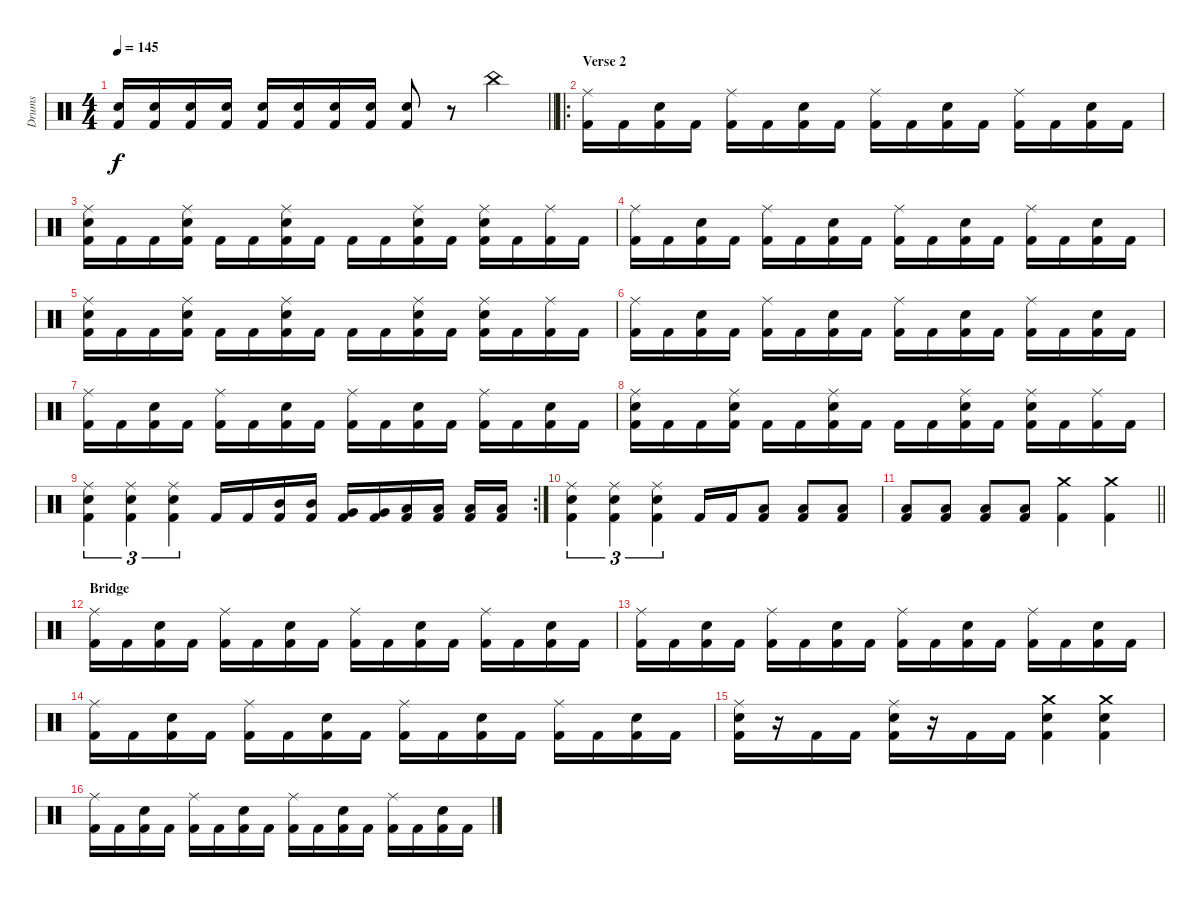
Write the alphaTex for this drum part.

\track ("Drums" "Drums") {instrument percussion}
\staff {score}
\articulation defaults
\ts (4 4)
\tempo 145
\clef neutral
\barLineRight lightlight
\ks c
("Electric Snare (hit)" "Kick (hit) 2").16{dy f} ("Electric Snare (hit)" "Kick (hit) 2").16 ("Electric Snare (hit)" "Kick (hit) 2").16 ("Electric Snare (hit)" "Kick (hit) 2").16 ("Electric Snare (hit)" "Kick (hit) 2").16 ("Electric Snare (hit)" "Kick (hit) 2").16 ("Electric Snare (hit)" "Kick (hit) 2").16 ("Electric Snare (hit)" "Kick (hit) 2").16 ("Electric Snare (hit)" "Kick (hit) 2").8 r.8 "China (hit)".4 |
\ro
\section ("" "Verse 2")
("Ride (middle)" "Kick (hit) 2").16 "Kick (hit) 2".16 ("Electric Snare (hit)" "Kick (hit) 2").16 "Kick (hit) 2".16 ("Ride (middle)" "Kick (hit) 2").16 "Kick (hit) 2".16 ("Electric Snare (hit)" "Kick (hit) 2").16 "Kick (hit) 2".16 ("Ride (middle)" "Kick (hit) 2").16 "Kick (hit) 2".16 ("Electric Snare (hit)" "Kick (hit) 2").16 "Kick (hit) 2".16 ("Ride (middle)" "Kick (hit) 2").16 "Kick (hit) 2".16 ("Electric Snare (hit)" "Kick (hit) 2").16 "Kick (hit) 2".16 |
("Ride (middle)" "Electric Snare (hit)" "Kick (hit) 2").16 "Kick (hit) 2".16 "Kick (hit) 2".16 ("Ride (middle)" "Electric Snare (hit)" "Kick (hit) 2").16 "Kick (hit) 2".16 "Kick (hit) 2".16 ("Ride (middle)" "Electric Snare (hit)" "Kick (hit) 2").16 "Kick (hit) 2".16 "Kick (hit) 2".16 "Kick (hit) 2".16 ("Ride (middle)" "Electric Snare (hit)" "Kick (hit) 2").16 "Kick (hit) 2".16 ("Ride (middle)" "Electric Snare (hit)" "Kick (hit) 2").16 "Kick (hit) 2".16 ("Ride (middle)" "Kick (hit) 2").16 "Kick (hit) 2".16 |
("Ride (middle)" "Kick (hit) 2").16 "Kick (hit) 2".16 ("Electric Snare (hit)" "Kick (hit) 2").16 "Kick (hit) 2".16 ("Ride (middle)" "Kick (hit) 2").16 "Kick (hit) 2".16 ("Electric Snare (hit)" "Kick (hit) 2").16 "Kick (hit) 2".16 ("Ride (middle)" "Kick (hit) 2").16 "Kick (hit) 2".16 ("Electric Snare (hit)" "Kick (hit) 2").16 "Kick (hit) 2".16 ("Ride (middle)" "Kick (hit) 2").16 "Kick (hit) 2".16 ("Electric Snare (hit)" "Kick (hit) 2").16 "Kick (hit) 2".16 |
("Ride (middle)" "Electric Snare (hit)" "Kick (hit) 2").16 "Kick (hit) 2".16 "Kick (hit) 2".16 ("Ride (middle)" "Electric Snare (hit)" "Kick (hit) 2").16 "Kick (hit) 2".16 "Kick (hit) 2".16 ("Ride (middle)" "Electric Snare (hit)" "Kick (hit) 2").16 "Kick (hit) 2".16 "Kick (hit) 2".16 "Kick (hit) 2".16 ("Ride (middle)" "Electric Snare (hit)" "Kick (hit) 2").16 "Kick (hit) 2".16 ("Ride (middle)" "Electric Snare (hit)" "Kick (hit) 2").16 "Kick (hit) 2".16 ("Ride (middle)" "Kick (hit) 2").16 "Kick (hit) 2".16 |
("Ride (middle)" "Kick (hit) 2").16 "Kick (hit) 2".16 ("Electric Snare (hit)" "Kick (hit) 2").16 "Kick (hit) 2".16 ("Ride (middle)" "Kick (hit) 2").16 "Kick (hit) 2".16 ("Electric Snare (hit)" "Kick (hit) 2").16 "Kick (hit) 2".16 ("Ride (middle)" "Kick (hit) 2").16 "Kick (hit) 2".16 ("Electric Snare (hit)" "Kick (hit) 2").16 "Kick (hit) 2".16 ("Ride (middle)" "Kick (hit) 2").16 "Kick (hit) 2".16 ("Electric Snare (hit)" "Kick (hit) 2").16 "Kick (hit) 2".16 |
("Ride (middle)" "Kick (hit) 2").16 "Kick (hit) 2".16 ("Electric Snare (hit)" "Kick (hit) 2").16 "Kick (hit) 2".16 ("Ride (middle)" "Kick (hit) 2").16 "Kick (hit) 2".16 ("Electric Snare (hit)" "Kick (hit) 2").16 "Kick (hit) 2".16 ("Ride (middle)" "Kick (hit) 2").16 "Kick (hit) 2".16 ("Electric Snare (hit)" "Kick (hit) 2").16 "Kick (hit) 2".16 ("Ride (middle)" "Kick (hit) 2").16 "Kick (hit) 2".16 ("Electric Snare (hit)" "Kick (hit) 2").16 "Kick (hit) 2".16 |
("Ride (middle)" "Electric Snare (hit)" "Kick (hit) 2").16 "Kick (hit) 2".16 "Kick (hit) 2".16 ("Ride (middle)" "Electric Snare (hit)" "Kick (hit) 2").16 "Kick (hit) 2".16 "Kick (hit) 2".16 ("Ride (middle)" "Electric Snare (hit)" "Kick (hit) 2").16 "Kick (hit) 2".16 "Kick (hit) 2".16 "Kick (hit) 2".16 ("Ride (middle)" "Electric Snare (hit)" "Kick (hit) 2").16 "Kick (hit) 2".16 ("Ride (middle)" "Electric Snare (hit)" "Kick (hit) 2").16 "Kick (hit) 2".16 ("Ride (middle)" "Kick (hit) 2").16 "Kick (hit) 2".16 |
\rc 2
("Ride (middle)" "Electric Snare (hit)" "Kick (hit) 2").4{tu (3 2)} ("Ride (middle)" "Electric Snare (hit)" "Kick (hit) 2").4{tu (3 2)} ("Ride (middle)" "Electric Snare (hit)" "Kick (hit) 2").4{tu (3 2)} "Kick (hit) 2".16 "Kick (hit) 2".16 ("Mid Tom (hit)" "Kick (hit) 2").16 ("Mid Tom (hit)" "Kick (hit) 2").16 ("Very Low Tom (hit)" "Kick (hit) 2").16 ("Very Low Tom (hit)" "Kick (hit) 2").16 ("Low Floor Tom (hit)" "Kick (hit) 2").16 ("Low Floor Tom (hit)" "Kick (hit) 2").16 ("Low Floor Tom (hit)" "Kick (hit) 2").16 ("Low Floor Tom (hit)" "Kick (hit) 2").16 |
("Ride (middle)" "Electric Snare (hit)" "Kick (hit) 2").4{tu (3 2)} ("Ride (middle)" "Electric Snare (hit)" "Kick (hit) 2").4{tu (3 2)} ("Ride (middle)" "Electric Snare (hit)" "Kick (hit) 2").4{tu (3 2)} "Kick (hit) 2".16 "Kick (hit) 2".16 ("Low Floor Tom (hit)" "Kick (hit) 2").8 ("Low Floor Tom (hit)" "Kick (hit) 2").8 ("Low Floor Tom (hit)" "Kick (hit) 2").8 |
\barLineRight lightlight
("Low Floor Tom (hit)" "Kick (hit) 2").8 ("Low Floor Tom (hit)" "Kick (hit) 2").8 ("Low Floor Tom (hit)" "Kick (hit) 2").8 ("Low Floor Tom (hit)" "Kick (hit) 2").8 ("Crash medium (hit)" "Kick (hit) 2").4 ("Crash medium (hit)" "Kick (hit) 2").4 |
\section ("" "Bridge")
("Ride (middle)" "Kick (hit) 2").16 "Kick (hit) 2".16 ("Electric Snare (hit)" "Kick (hit) 2").16 "Kick (hit) 2".16 ("Ride (middle)" "Kick (hit) 2").16 "Kick (hit) 2".16 ("Electric Snare (hit)" "Kick (hit) 2").16 "Kick (hit) 2".16 ("Ride (middle)" "Kick (hit) 2").16 "Kick (hit) 2".16 ("Electric Snare (hit)" "Kick (hit) 2").16 "Kick (hit) 2".16 ("Ride (middle)" "Kick (hit) 2").16 "Kick (hit) 2".16 ("Electric Snare (hit)" "Kick (hit) 2").16 "Kick (hit) 2".16 |
("Ride (middle)" "Kick (hit) 2").16 "Kick (hit) 2".16 ("Electric Snare (hit)" "Kick (hit) 2").16 "Kick (hit) 2".16 ("Ride (middle)" "Kick (hit) 2").16 "Kick (hit) 2".16 ("Electric Snare (hit)" "Kick (hit) 2").16 "Kick (hit) 2".16 ("Ride (middle)" "Kick (hit) 2").16 "Kick (hit) 2".16 ("Electric Snare (hit)" "Kick (hit) 2").16 "Kick (hit) 2".16 ("Ride (middle)" "Kick (hit) 2").16 "Kick (hit) 2".16 ("Electric Snare (hit)" "Kick (hit) 2").16 "Kick (hit) 2".16 |
("Ride (middle)" "Kick (hit) 2").16 "Kick (hit) 2".16 ("Electric Snare (hit)" "Kick (hit) 2").16 "Kick (hit) 2".16 ("Ride (middle)" "Kick (hit) 2").16 "Kick (hit) 2".16 ("Electric Snare (hit)" "Kick (hit) 2").16 "Kick (hit) 2".16 ("Ride (middle)" "Kick (hit) 2").16 "Kick (hit) 2".16 ("Electric Snare (hit)" "Kick (hit) 2").16 "Kick (hit) 2".16 ("Ride (middle)" "Kick (hit) 2").16 "Kick (hit) 2".16 ("Electric Snare (hit)" "Kick (hit) 2").16 "Kick (hit) 2".16 |
("Ride (middle)" "Electric Snare (hit)" "Kick (hit) 2").16 r.16 "Kick (hit) 2".16 "Kick (hit) 2".16 ("Ride (middle)" "Electric Snare (hit)" "Kick (hit) 2").16 r.16 "Kick (hit) 2".16 "Kick (hit) 2".16 ("Crash medium (hit)" "Electric Snare (hit)" "Kick (hit) 2").4 ("Crash medium (hit)" "Electric Snare (hit)" "Kick (hit) 2").4 |
("Ride (middle)" "Kick (hit) 2").16 "Kick (hit) 2".16 ("Electric Snare (hit)" "Kick (hit) 2").16 "Kick (hit) 2".16 ("Ride (middle)" "Kick (hit) 2").16 "Kick (hit) 2".16 ("Electric Snare (hit)" "Kick (hit) 2").16 "Kick (hit) 2".16 ("Ride (middle)" "Kick (hit) 2").16 "Kick (hit) 2".16 ("Electric Snare (hit)" "Kick (hit) 2").16 "Kick (hit) 2".16 ("Ride (middle)" "Kick (hit) 2").16 "Kick (hit) 2".16 ("Electric Snare (hit)" "Kick (hit) 2").16 "Kick (hit) 2".16
